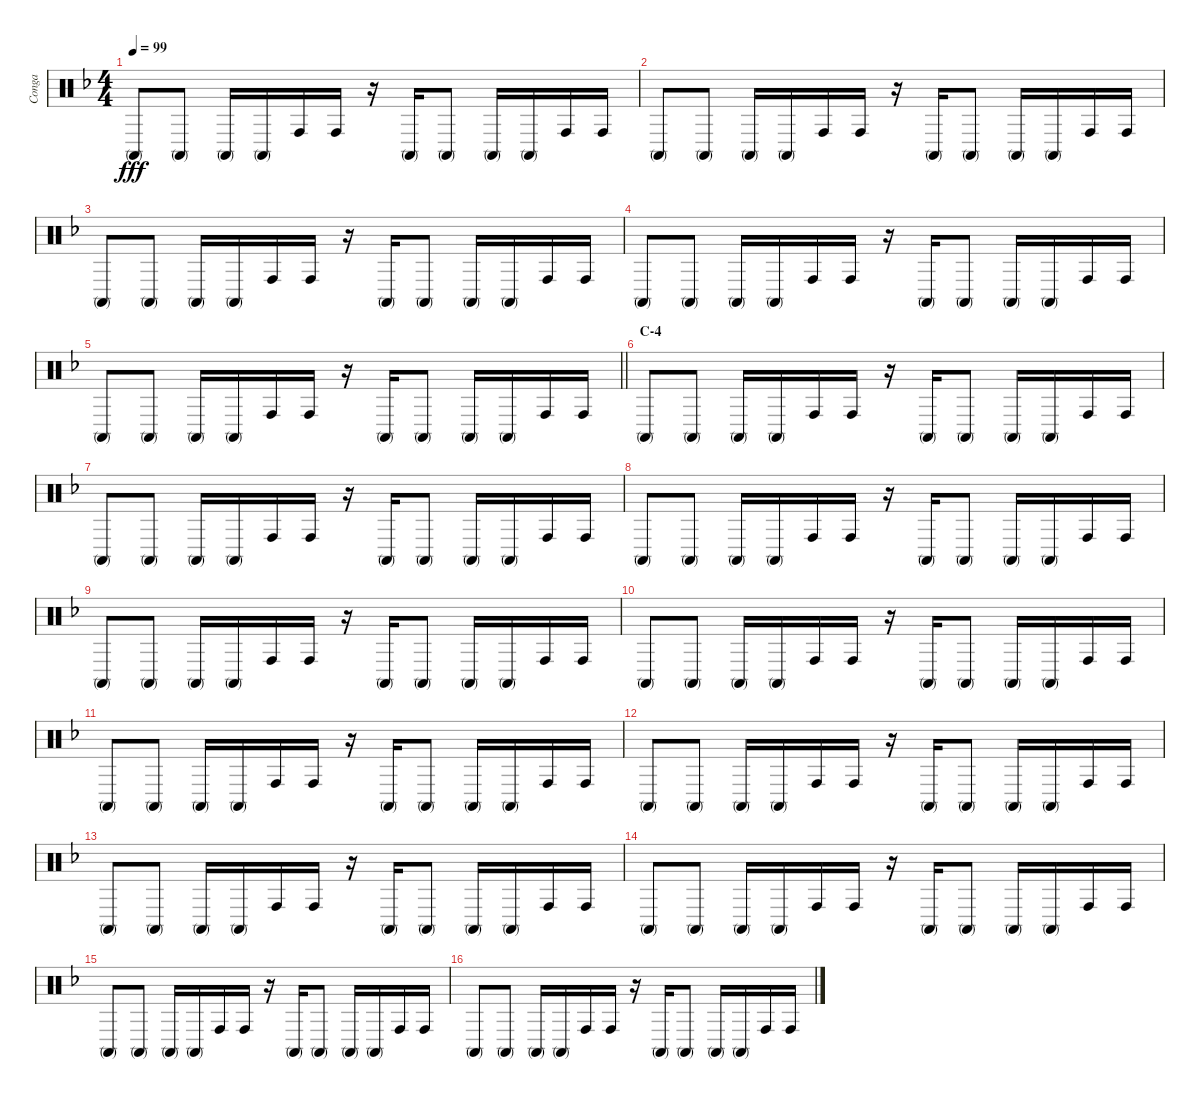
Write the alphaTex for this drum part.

\track ("Conga" "Conga") {instrument percussion}
\staff {score}
\articulation defaults
\ts (4 4)
\tempo 99
\clef neutral
\ks f "Conga high (mute)".8{dy fff} "Conga high (mute)".8 "Conga high (mute)".16 "Conga high (mute)".16 "Conga high (hit)".16 "Conga high (hit)".16
r.16 "Conga high (mute)".16 "Conga high (mute)".8 "Conga high (mute)".16 "Conga high (mute)".16 "Conga high (hit)".16 "Conga high (hit)".16 |
"Conga high (mute)".8 "Conga high (mute)".8 "Conga high (mute)".16 "Conga high (mute)".16 "Conga high (hit)".16 "Conga high (hit)".16 r.16 "Conga high (mute)".16 "Conga high (mute)".8 "Conga high (mute)".16 "Conga high (mute)".16 "Conga high (hit)".16 "Conga high (hit)".16 |
"Conga high (mute)".8 "Conga high (mute)".8 "Conga high (mute)".16 "Conga high (mute)".16 "Conga high (hit)".16 "Conga high (hit)".16 r.16 "Conga high (mute)".16 "Conga high (mute)".8 "Conga high (mute)".16 "Conga high (mute)".16 "Conga high (hit)".16 "Conga high (hit)".16 |
"Conga high (mute)".8 "Conga high (mute)".8 "Conga high (mute)".16 "Conga high (mute)".16 "Conga high (hit)".16 "Conga high (hit)".16 r.16 "Conga high (mute)".16 "Conga high (mute)".8 "Conga high (mute)".16 "Conga high (mute)".16 "Conga high (hit)".16 "Conga high (hit)".16 |
\barLineRight lightlight "Conga high (mute)".8 "Conga high (mute)".8 "Conga high (mute)".16 "Conga high (mute)".16 "Conga high (hit)".16 "Conga high (hit)".16
r.16 "Conga high (mute)".16 "Conga high (mute)".8 "Conga high (mute)".16 "Conga high (mute)".16 "Conga high (hit)".16 "Conga high (hit)".16 |
\section ("" "C-4")
"Conga high (mute)".8 "Conga high (mute)".8 "Conga high (mute)".16 "Conga high (mute)".16 "Conga high (hit)".16 "Conga high (hit)".16 r.16 "Conga high (mute)".16 "Conga high (mute)".8 "Conga high (mute)".16 "Conga high (mute)".16 "Conga high (hit)".16 "Conga high (hit)".16 |
"Conga high (mute)".8 "Conga high (mute)".8 "Conga high (mute)".16 "Conga high (mute)".16 "Conga high (hit)".16 "Conga high (hit)".16 r.16 "Conga high (mute)".16 "Conga high (mute)".8 "Conga high (mute)".16 "Conga high (mute)".16 "Conga high (hit)".16 "Conga high (hit)".16 |
"Conga high (mute)".8 "Conga high (mute)".8 "Conga high (mute)".16 "Conga high (mute)".16 "Conga high (hit)".16 "Conga high (hit)".16 r.16 "Conga high (mute)".16 "Conga high (mute)".8 "Conga high (mute)".16 "Conga high (mute)".16 "Conga high (hit)".16 "Conga high (hit)".16 |
"Conga high (mute)".8 "Conga high (mute)".8 "Conga high (mute)".16 "Conga high (mute)".16 "Conga high (hit)".16 "Conga high (hit)".16 r.16 "Conga high (mute)".16 "Conga high (mute)".8 "Conga high (mute)".16 "Conga high (mute)".16 "Conga high (hit)".16 "Conga high (hit)".16 |
"Conga high (mute)".8 "Conga high (mute)".8 "Conga high (mute)".16 "Conga high (mute)".16 "Conga high (hit)".16 "Conga high (hit)".16 r.16 "Conga high (mute)".16 "Conga high (mute)".8 "Conga high (mute)".16 "Conga high (mute)".16 "Conga high (hit)".16 "Conga high (hit)".16 |
"Conga high (mute)".8 "Conga high (mute)".8 "Conga high (mute)".16 "Conga high (mute)".16 "Conga high (hit)".16 "Conga high (hit)".16 r.16 "Conga high (mute)".16 "Conga high (mute)".8 "Conga high (mute)".16 "Conga high (mute)".16 "Conga high (hit)".16 "Conga high (hit)".16 |
"Conga high (mute)".8 "Conga high (mute)".8 "Conga high (mute)".16 "Conga high (mute)".16 "Conga high (hit)".16 "Conga high (hit)".16 r.16 "Conga high (mute)".16 "Conga high (mute)".8 "Conga high (mute)".16 "Conga high (mute)".16 "Conga high (hit)".16 "Conga high (hit)".16 |
"Conga high (mute)".8 "Conga high (mute)".8 "Conga high (mute)".16 "Conga high (mute)".16 "Conga high (hit)".16 "Conga high (hit)".16 r.16 "Conga high (mute)".16 "Conga high (mute)".8 "Conga high (mute)".16 "Conga high (mute)".16 "Conga high (hit)".16 "Conga high (hit)".16 |
"Conga high (mute)".8 "Conga high (mute)".8 "Conga high (mute)".16 "Conga high (mute)".16 "Conga high (hit)".16 "Conga high (hit)".16 r.16 "Conga high (mute)".16 "Conga high (mute)".8 "Conga high (mute)".16 "Conga high (mute)".16 "Conga high (hit)".16 "Conga high (hit)".16 |
"Conga high (mute)".8 "Conga high (mute)".8 "Conga high (mute)".16 "Conga high (mute)".16 "Conga high (hit)".16 "Conga high (hit)".16 r.16 "Conga high (mute)".16 "Conga high (mute)".8 "Conga high (mute)".16 "Conga high (mute)".16 "Conga high (hit)".16 "Conga high (hit)".16 |
"Conga high (mute)".8 "Conga high (mute)".8 "Conga high (mute)".16 "Conga high (mute)".16 "Conga high (hit)".16 "Conga high (hit)".16 r.16 "Conga high (mute)".16 "Conga high (mute)".8 "Conga high (mute)".16 "Conga high (mute)".16 "Conga high (hit)".16 "Conga high (hit)".16
